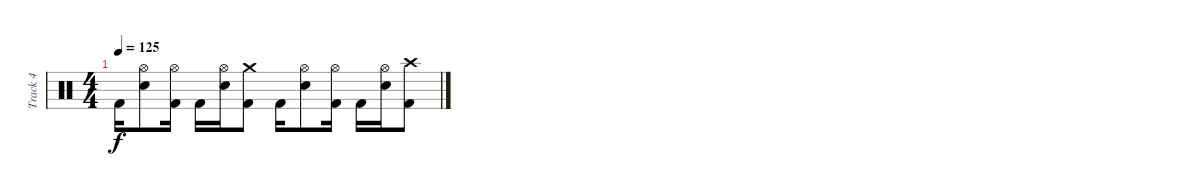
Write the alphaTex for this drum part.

\track ("Track 4" "Track 4") {instrument percussion}
\staff {score}
\articulation defaults
\ts (4 4)
\tempo 125
\clef neutral
\ks c "Kick (hit) 2".16{dy f}
("Hi-Hat (open)" "Electric Snare (hit)").8 ("Hi-Hat (open)" "Kick (hit) 2").16 "Kick (hit) 2".16 ("Hi-Hat (open)" "Electric Snare (hit)").16 ("Crash medium (hit)" "Kick (hit) 2").8 "Kick (hit) 2".16 ("Hi-Hat (open)" "Electric Snare (hit)").8 ("Hi-Hat (open)" "Kick (hit) 2").16 "Kick (hit) 2".16 ("Hi-Hat (open)" "Electric Snare (hit)").16 ("Crash high (hit)" "Kick (hit) 2").8
